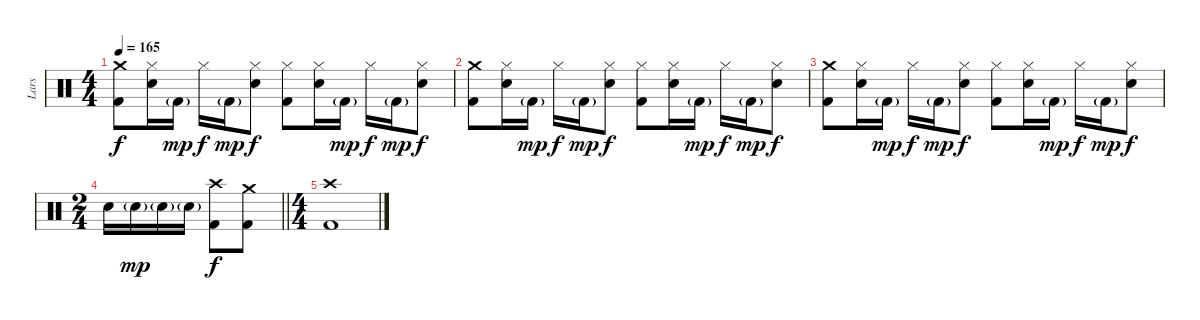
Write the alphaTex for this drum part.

\track ("Lars" "Lars") {instrument percussion}
\staff {score}
\articulation defaults
\ts (4 4)
\tempo 165
\clef neutral
\ks c
("Crash medium (hit)" "Kick (hit) 2").8{dy f} ("Hi-Hat (closed)" "Snare (hit) 2").16 "Kick (hit) 2"{g}.16{dy mp} "Hi-Hat (closed)".16{dy f} "Kick (hit) 2"{g}.16{dy mp} ("Hi-Hat (closed)" "Snare (hit) 2").8{dy f} ("Hi-Hat (closed)" "Kick (hit) 2").8 ("Hi-Hat (closed)" "Snare (hit) 2").16 "Kick (hit) 2"{g}.16{dy mp} "Hi-Hat (closed)".16{dy f} "Kick (hit) 2"{g}.16{dy mp} ("Hi-Hat (closed)" "Snare (hit) 2").8{dy f} |
("Crash medium (hit)" "Kick (hit) 2").8 ("Hi-Hat (closed)" "Snare (hit) 2").16 "Kick (hit) 2"{g}.16{dy mp} "Hi-Hat (closed)".16{dy f} "Kick (hit) 2"{g}.16{dy mp} ("Hi-Hat (closed)" "Snare (hit) 2").8{dy f} ("Hi-Hat (closed)" "Kick (hit) 2").8 ("Hi-Hat (closed)" "Snare (hit) 2").16 "Kick (hit) 2"{g}.16{dy mp} "Hi-Hat (closed)".16{dy f} "Kick (hit) 2"{g}.16{dy mp} ("Hi-Hat (closed)" "Snare (hit) 2").8{dy f} |
("Crash medium (hit)" "Kick (hit) 2").8 ("Hi-Hat (closed)" "Snare (hit) 2").16 "Kick (hit) 2"{g}.16{dy mp} "Hi-Hat (closed)".16{dy f} "Kick (hit) 2"{g}.16{dy mp} ("Hi-Hat (closed)" "Snare (hit) 2").8{dy f} ("Hi-Hat (closed)" "Kick (hit) 2").8 ("Hi-Hat (closed)" "Snare (hit) 2").16 "Kick (hit) 2"{g}.16{dy mp} "Hi-Hat (closed)".16{dy f} "Kick (hit) 2"{g}.16{dy mp} ("Hi-Hat (closed)" "Snare (hit) 2").8{dy f} |
\ts (2 4)
\barLineRight lightlight "Snare (hit) 2".16 "Snare (hit) 2"{g}.16{dy mp} "Snare (hit) 2"{g}.16 "Snare (hit) 2"{g}.16
("Crash high (hit)" "Kick (hit) 2").8{dy f} ("Crash medium (hit)" "Kick (hit) 2").8 |
\ts (4 4)
("Crash high (hit)" "Kick (hit) 2").1
